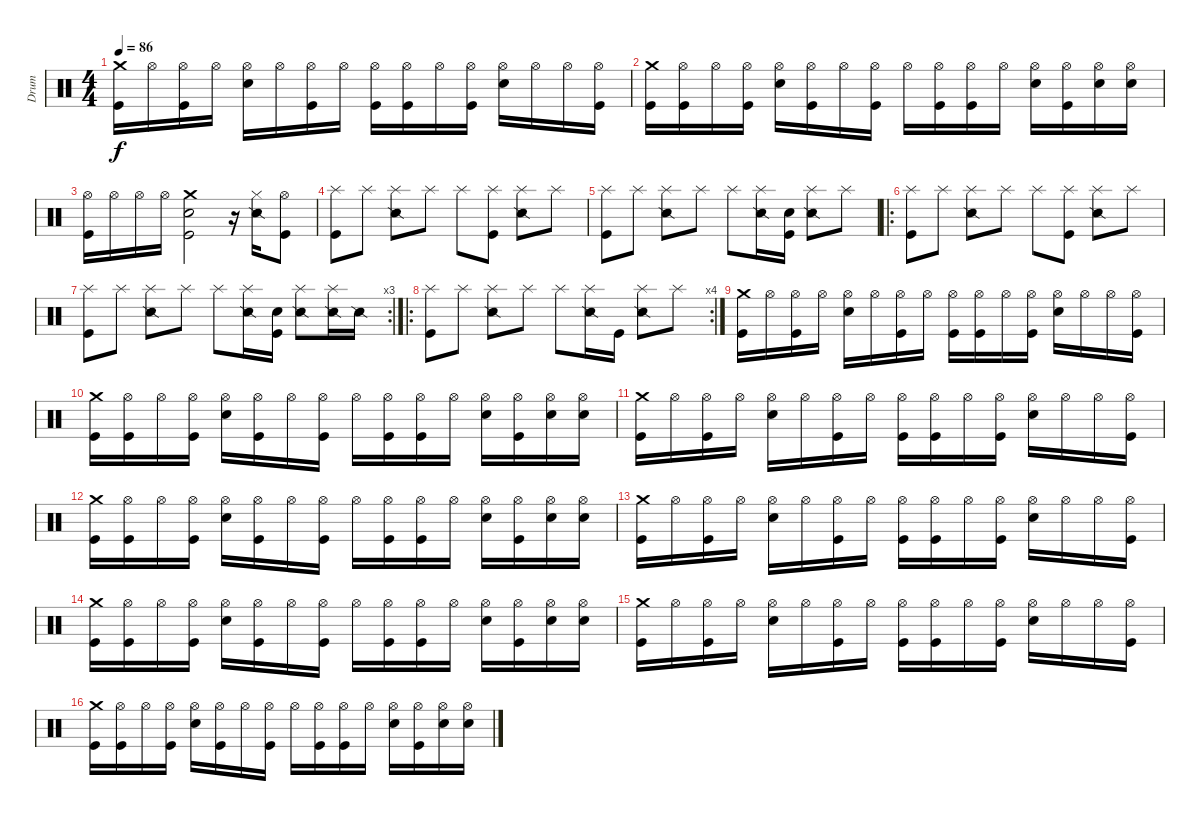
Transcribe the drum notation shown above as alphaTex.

\track ("Drum" "Drum") {instrument percussion}
\staff {score}
\articulation defaults
\ts (4 4)
\tempo 86
\clef neutral
\ks c
("Crash medium (hit)" "Kick (hit)").16{dy f} "Hi-Hat (open)".16 ("Hi-Hat (open)" "Kick (hit)").16 "Hi-Hat (open)".16 ("Hi-Hat (open)" "Electric Snare (hit)").16 "Hi-Hat (open)".16 ("Hi-Hat (open)" "Kick (hit)").16 "Hi-Hat (open)".16 ("Hi-Hat (open)" "Kick (hit)").16 ("Hi-Hat (open)" "Kick (hit)").16 "Hi-Hat (open)".16 ("Hi-Hat (open)" "Kick (hit)").16 ("Hi-Hat (open)" "Electric Snare (hit)").16 "Hi-Hat (open)".16 "Hi-Hat (open)".16 ("Hi-Hat (open)" "Kick (hit)").16 |
("Crash medium (hit)" "Kick (hit)").16 ("Hi-Hat (open)" "Kick (hit)").16 "Hi-Hat (open)".16 ("Hi-Hat (open)" "Kick (hit)").16 ("Hi-Hat (open)" "Electric Snare (hit)").16 ("Hi-Hat (open)" "Kick (hit)").16 "Hi-Hat (open)".16 ("Hi-Hat (open)" "Kick (hit)").16 "Hi-Hat (open)".16 ("Hi-Hat (open)" "Kick (hit)").16 ("Hi-Hat (open)" "Kick (hit)").16 "Hi-Hat (open)".16 ("Hi-Hat (open)" "Electric Snare (hit)").16 ("Hi-Hat (open)" "Kick (hit)").16 ("Hi-Hat (open)" "Electric Snare (hit)").16 ("Hi-Hat (open)" "Electric Snare (hit)").16 |
("Hi-Hat (open)" "Kick (hit)").16 "Hi-Hat (open)".16 "Hi-Hat (open)".16 "Hi-Hat (open)".16 ("Crash medium (hit)" "Electric Snare (hit)" "Kick (hit)").2 r.16 ("Hi-Hat (closed)" "Snare (side stick) 2").16 ("Hi-Hat (open)" "Kick (hit)").8 |
("Splash (hit)" "Kick (hit)").8 "Splash (hit)".8 ("Splash (hit)" "Snare (side stick) 2").8 "Splash (hit)".8 "Splash (hit)".8 ("Splash (hit)" "Kick (hit)").8 ("Splash (hit)" "Snare (side stick) 2").8 "Splash (hit)".8 |
("Splash (hit)" "Kick (hit)").8 "Splash (hit)".8 ("Splash (hit)" "Snare (side stick) 2").8 "Splash (hit)".8 "Splash (hit)".8 ("Splash (hit)" "Snare (side stick) 2").16 ("Snare (hit)" "Kick (hit)").16 ("Splash (hit)" "Snare (side stick) 2").8 "Splash (hit)".8 |
\ro
("Splash (hit)" "Kick (hit)").8 "Splash (hit)".8 ("Splash (hit)" "Snare (side stick) 2").8 "Splash (hit)".8 "Splash (hit)".8 ("Splash (hit)" "Kick (hit)").8 ("Splash (hit)" "Snare (side stick) 2").8 "Splash (hit)".8 |
\rc 3
("Splash (hit)" "Kick (hit)").8 "Splash (hit)".8 ("Splash (hit)" "Snare (side stick) 2").8 "Splash (hit)".8 "Splash (hit)".8 ("Splash (hit)" "Snare (side stick) 2").16 ("Snare (hit)" "Kick (hit)").16 ("Splash (hit)" "Snare (side stick) 2").8 ("Splash (hit)" "Snare (side stick) 2").16 "Snare (side stick) 2".16 |
\ro
\rc 4
("Splash (hit)" "Kick (hit)").8 "Splash (hit)".8 ("Splash (hit)" "Snare (side stick) 2").8 "Splash (hit)".8 "Splash (hit)".8 ("Splash (hit)" "Snare (side stick) 2").16 "Kick (hit)".16 ("Splash (hit)" "Snare (side stick) 2").8 "Splash (hit)".8 |
("Crash medium (hit)" "Kick (hit)").16 "Hi-Hat (open)".16 ("Hi-Hat (open)" "Kick (hit)").16 "Hi-Hat (open)".16 ("Hi-Hat (open)" "Electric Snare (hit)").16 "Hi-Hat (open)".16 ("Hi-Hat (open)" "Kick (hit)").16 "Hi-Hat (open)".16 ("Hi-Hat (open)" "Kick (hit)").16 ("Hi-Hat (open)" "Kick (hit)").16 "Hi-Hat (open)".16 ("Hi-Hat (open)" "Kick (hit)").16 ("Hi-Hat (open)" "Electric Snare (hit)").16 "Hi-Hat (open)".16 "Hi-Hat (open)".16 ("Hi-Hat (open)" "Kick (hit)").16 |
("Crash medium (hit)" "Kick (hit)").16 ("Hi-Hat (open)" "Kick (hit)").16 "Hi-Hat (open)".16 ("Hi-Hat (open)" "Kick (hit)").16 ("Hi-Hat (open)" "Electric Snare (hit)").16 ("Hi-Hat (open)" "Kick (hit)").16 "Hi-Hat (open)".16 ("Hi-Hat (open)" "Kick (hit)").16 "Hi-Hat (open)".16 ("Hi-Hat (open)" "Kick (hit)").16 ("Hi-Hat (open)" "Kick (hit)").16 "Hi-Hat (open)".16 ("Hi-Hat (open)" "Electric Snare (hit)").16 ("Hi-Hat (open)" "Kick (hit)").16 ("Hi-Hat (open)" "Electric Snare (hit)").16 ("Hi-Hat (open)" "Electric Snare (hit)").16 |
("Crash medium (hit)" "Kick (hit)").16 "Hi-Hat (open)".16 ("Hi-Hat (open)" "Kick (hit)").16 "Hi-Hat (open)".16 ("Hi-Hat (open)" "Electric Snare (hit)").16 "Hi-Hat (open)".16 ("Hi-Hat (open)" "Kick (hit)").16 "Hi-Hat (open)".16 ("Hi-Hat (open)" "Kick (hit)").16 ("Hi-Hat (open)" "Kick (hit)").16 "Hi-Hat (open)".16 ("Hi-Hat (open)" "Kick (hit)").16 ("Hi-Hat (open)" "Electric Snare (hit)").16 "Hi-Hat (open)".16 "Hi-Hat (open)".16 ("Hi-Hat (open)" "Kick (hit)").16 |
("Crash medium (hit)" "Kick (hit)").16 ("Hi-Hat (open)" "Kick (hit)").16 "Hi-Hat (open)".16 ("Hi-Hat (open)" "Kick (hit)").16 ("Hi-Hat (open)" "Electric Snare (hit)").16 ("Hi-Hat (open)" "Kick (hit)").16 "Hi-Hat (open)".16 ("Hi-Hat (open)" "Kick (hit)").16 "Hi-Hat (open)".16 ("Hi-Hat (open)" "Kick (hit)").16 ("Hi-Hat (open)" "Kick (hit)").16 "Hi-Hat (open)".16 ("Hi-Hat (open)" "Electric Snare (hit)").16 ("Hi-Hat (open)" "Kick (hit)").16 ("Hi-Hat (open)" "Electric Snare (hit)").16 ("Hi-Hat (open)" "Electric Snare (hit)").16 |
("Crash medium (hit)" "Kick (hit)").16 "Hi-Hat (open)".16 ("Hi-Hat (open)" "Kick (hit)").16 "Hi-Hat (open)".16 ("Hi-Hat (open)" "Electric Snare (hit)").16 "Hi-Hat (open)".16 ("Hi-Hat (open)" "Kick (hit)").16 "Hi-Hat (open)".16 ("Hi-Hat (open)" "Kick (hit)").16 ("Hi-Hat (open)" "Kick (hit)").16 "Hi-Hat (open)".16 ("Hi-Hat (open)" "Kick (hit)").16 ("Hi-Hat (open)" "Electric Snare (hit)").16 "Hi-Hat (open)".16 "Hi-Hat (open)".16 ("Hi-Hat (open)" "Kick (hit)").16 |
("Crash medium (hit)" "Kick (hit)").16 ("Hi-Hat (open)" "Kick (hit)").16 "Hi-Hat (open)".16 ("Hi-Hat (open)" "Kick (hit)").16 ("Hi-Hat (open)" "Electric Snare (hit)").16 ("Hi-Hat (open)" "Kick (hit)").16 "Hi-Hat (open)".16 ("Hi-Hat (open)" "Kick (hit)").16 "Hi-Hat (open)".16 ("Hi-Hat (open)" "Kick (hit)").16 ("Hi-Hat (open)" "Kick (hit)").16 "Hi-Hat (open)".16 ("Hi-Hat (open)" "Electric Snare (hit)").16 ("Hi-Hat (open)" "Kick (hit)").16 ("Hi-Hat (open)" "Electric Snare (hit)").16 ("Hi-Hat (open)" "Electric Snare (hit)").16 |
("Crash medium (hit)" "Kick (hit)").16 "Hi-Hat (open)".16 ("Hi-Hat (open)" "Kick (hit)").16 "Hi-Hat (open)".16 ("Hi-Hat (open)" "Electric Snare (hit)").16 "Hi-Hat (open)".16 ("Hi-Hat (open)" "Kick (hit)").16 "Hi-Hat (open)".16 ("Hi-Hat (open)" "Kick (hit)").16 ("Hi-Hat (open)" "Kick (hit)").16 "Hi-Hat (open)".16 ("Hi-Hat (open)" "Kick (hit)").16 ("Hi-Hat (open)" "Electric Snare (hit)").16 "Hi-Hat (open)".16 "Hi-Hat (open)".16 ("Hi-Hat (open)" "Kick (hit)").16 |
("Crash medium (hit)" "Kick (hit)").16 ("Hi-Hat (open)" "Kick (hit)").16 "Hi-Hat (open)".16 ("Hi-Hat (open)" "Kick (hit)").16 ("Hi-Hat (open)" "Electric Snare (hit)").16 ("Hi-Hat (open)" "Kick (hit)").16 "Hi-Hat (open)".16 ("Hi-Hat (open)" "Kick (hit)").16 "Hi-Hat (open)".16 ("Hi-Hat (open)" "Kick (hit)").16 ("Hi-Hat (open)" "Kick (hit)").16 "Hi-Hat (open)".16 ("Hi-Hat (open)" "Electric Snare (hit)").16 ("Hi-Hat (open)" "Kick (hit)").16 ("Hi-Hat (open)" "Electric Snare (hit)").16 ("Hi-Hat (open)" "Electric Snare (hit)").16
